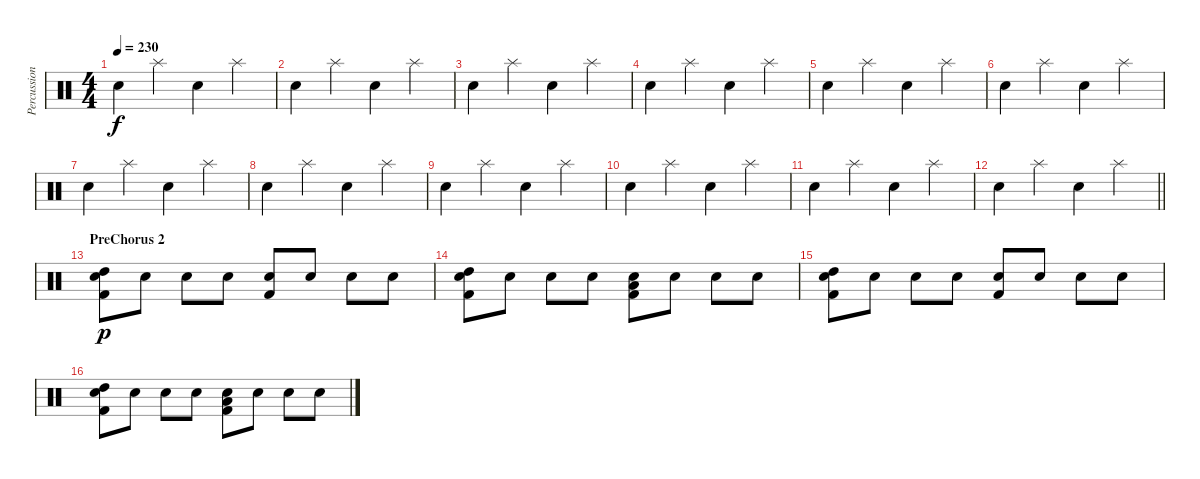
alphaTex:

\track ("Percussion" "Percussion") {instrument percussion}
\staff {score}
\articulation defaults
\ts (4 4)
\tempo 230
\clef neutral
\ks c "Snare (hit) 2".4{dy f} "Splash (hit)".4 "Snare (hit) 2".4 "Splash (hit)".4
|
"Snare (hit) 2".4 "Splash (hit)".4 "Snare (hit) 2".4 "Splash (hit)".4 |
"Snare (hit) 2".4 "Splash (hit)".4 "Snare (hit) 2".4 "Splash (hit)".4 |
"Snare (hit) 2".4 "Splash (hit)".4 "Snare (hit) 2".4 "Splash (hit)".4 |
"Snare (hit) 2".4 "Splash (hit)".4 "Snare (hit) 2".4 "Splash (hit)".4 |
"Snare (hit) 2".4 "Splash (hit)".4 "Snare (hit) 2".4 "Splash (hit)".4 |
"Snare (hit) 2".4 "Splash (hit)".4 "Snare (hit) 2".4 "Splash (hit)".4 |
"Snare (hit) 2".4 "Splash (hit)".4 "Snare (hit) 2".4 "Splash (hit)".4 |
"Snare (hit) 2".4 "Splash (hit)".4 "Snare (hit) 2".4 "Splash (hit)".4 |
"Snare (hit) 2".4 "Splash (hit)".4 "Snare (hit) 2".4 "Splash (hit)".4 |
"Snare (hit) 2".4 "Splash (hit)".4 "Snare (hit) 2".4 "Splash (hit)".4 |
\barLineRight lightlight "Snare (hit) 2".4 "Splash (hit)".4 "Snare (hit) 2".4 "Splash (hit)".4
|
\section ("" "PreChorus 2")
("Snare (hit) 2" "Kick (hit) 2" "High Tom (hit)").8{dy p} "Snare (hit) 2".8 "Snare (hit) 2".8 "Snare (hit) 2".8 ("Kick (hit) 2" "Snare (hit) 2").8 "Snare (hit) 2".8 "Snare (hit) 2".8 "Snare (hit) 2".8 |
("Snare (hit) 2" "High Tom (hit)" "Kick (hit) 2").8 "Snare (hit) 2".8 "Snare (hit) 2".8 "Snare (hit) 2".8 ("Snare (hit) 2" "Low Floor Tom (hit)" "Kick (hit) 2").8 "Snare (hit) 2".8 "Snare (hit) 2".8 "Snare (hit) 2".8 |
("Snare (hit) 2" "Kick (hit) 2" "High Tom (hit)").8 "Snare (hit) 2".8 "Snare (hit) 2".8 "Snare (hit) 2".8 ("Kick (hit) 2" "Snare (hit) 2").8 "Snare (hit) 2".8 "Snare (hit) 2".8 "Snare (hit) 2".8 |
("Snare (hit) 2" "High Tom (hit)" "Kick (hit) 2").8 "Snare (hit) 2".8 "Snare (hit) 2".8 "Snare (hit) 2".8 ("Snare (hit) 2" "Low Floor Tom (hit)" "Kick (hit) 2").8 "Snare (hit) 2".8 "Snare (hit) 2".8 "Snare (hit) 2".8
